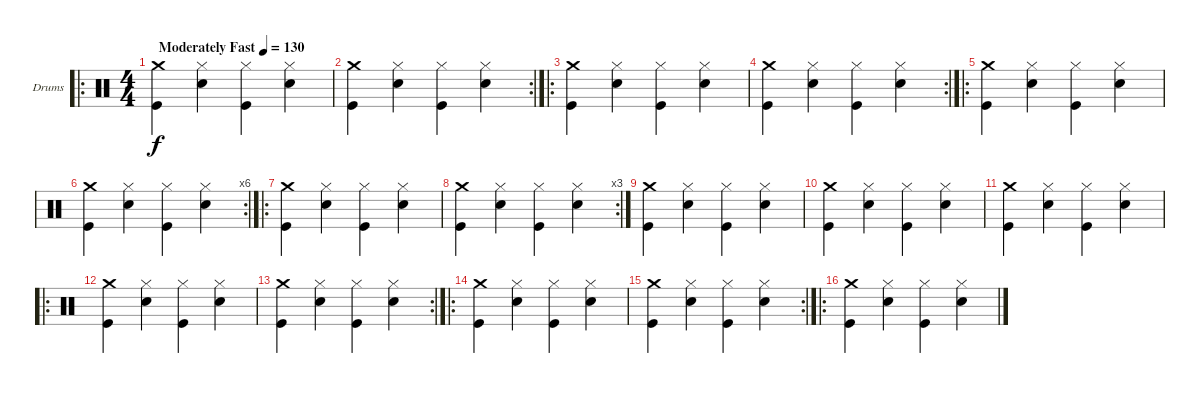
\bracketExtendMode groupsimilarinstruments
\firstSystemTrackNameOrientation horizontal
\otherSystemsTrackNameOrientation horizontal
\track ("Drumkit" "Drums") {instrument percussion}
\staff {score}
\articulation defaults
\ro
\ts (4 4)
\beaming (8 2 2 2 2)
\tempo (130 "Moderately Fast")
\clef neutral
\ks c
("Crash medium (hit)" "Kick (hit)").4{dy f} ("Hi-Hat (closed)" "Snare (hit) 2").4 ("Hi-Hat (closed)" "Kick (hit)").4 ("Hi-Hat (closed)" "Snare (hit) 2").4 |
\rc 2
("Crash medium (hit)" "Kick (hit)").4 ("Hi-Hat (closed)" "Snare (hit) 2").4 ("Hi-Hat (closed)" "Kick (hit)").4 ("Hi-Hat (closed)" "Snare (hit) 2").4 |
\ro
("Crash medium (hit)" "Kick (hit)").4 ("Hi-Hat (closed)" "Snare (hit) 2").4 ("Hi-Hat (closed)" "Kick (hit)").4 ("Hi-Hat (closed)" "Snare (hit) 2").4 |
\rc 2
("Crash medium (hit)" "Kick (hit)").4 ("Hi-Hat (closed)" "Snare (hit) 2").4 ("Hi-Hat (closed)" "Kick (hit)").4 ("Hi-Hat (closed)" "Snare (hit) 2").4 |
\ro
("Crash medium (hit)" "Kick (hit)").4 ("Hi-Hat (closed)" "Snare (hit) 2").4 ("Hi-Hat (closed)" "Kick (hit)").4 ("Hi-Hat (closed)" "Snare (hit) 2").4 |
\rc 6
("Crash medium (hit)" "Kick (hit)").4 ("Hi-Hat (closed)" "Snare (hit) 2").4 ("Hi-Hat (closed)" "Kick (hit)").4 ("Hi-Hat (closed)" "Snare (hit) 2").4 |
\ro
("Crash medium (hit)" "Kick (hit)").4 ("Hi-Hat (closed)" "Snare (hit) 2").4 ("Hi-Hat (closed)" "Kick (hit)").4 ("Hi-Hat (closed)" "Snare (hit) 2").4 |
\rc 3
("Crash medium (hit)" "Kick (hit)").4 ("Hi-Hat (closed)" "Snare (hit) 2").4 ("Hi-Hat (closed)" "Kick (hit)").4 ("Hi-Hat (closed)" "Snare (hit) 2").4 |
("Crash medium (hit)" "Kick (hit)").4 ("Hi-Hat (closed)" "Snare (hit) 2").4 ("Hi-Hat (closed)" "Kick (hit)").4 ("Hi-Hat (closed)" "Snare (hit) 2").4 |
("Crash medium (hit)" "Kick (hit)").4 ("Hi-Hat (closed)" "Snare (hit) 2").4 ("Hi-Hat (closed)" "Kick (hit)").4 ("Hi-Hat (closed)" "Snare (hit) 2").4 |
("Crash medium (hit)" "Kick (hit)").4 ("Hi-Hat (closed)" "Snare (hit) 2").4 ("Hi-Hat (closed)" "Kick (hit)").4 ("Hi-Hat (closed)" "Snare (hit) 2").4 |
\ro
("Crash medium (hit)" "Kick (hit)").4 ("Hi-Hat (closed)" "Snare (hit) 2").4 ("Hi-Hat (closed)" "Kick (hit)").4 ("Hi-Hat (closed)" "Snare (hit) 2").4 |
\rc 2
("Crash medium (hit)" "Kick (hit)").4 ("Hi-Hat (closed)" "Snare (hit) 2").4 ("Hi-Hat (closed)" "Kick (hit)").4 ("Hi-Hat (closed)" "Snare (hit) 2").4 |
\ro
("Crash medium (hit)" "Kick (hit)").4 ("Hi-Hat (closed)" "Snare (hit) 2").4 ("Hi-Hat (closed)" "Kick (hit)").4 ("Hi-Hat (closed)" "Snare (hit) 2").4 |
\rc 2
("Crash medium (hit)" "Kick (hit)").4 ("Hi-Hat (closed)" "Snare (hit) 2").4 ("Hi-Hat (closed)" "Kick (hit)").4 ("Hi-Hat (closed)" "Snare (hit) 2").4 |
\ro
("Crash medium (hit)" "Kick (hit)").4 ("Hi-Hat (closed)" "Snare (hit) 2").4 ("Hi-Hat (closed)" "Kick (hit)").4 ("Hi-Hat (closed)" "Snare (hit) 2").4
